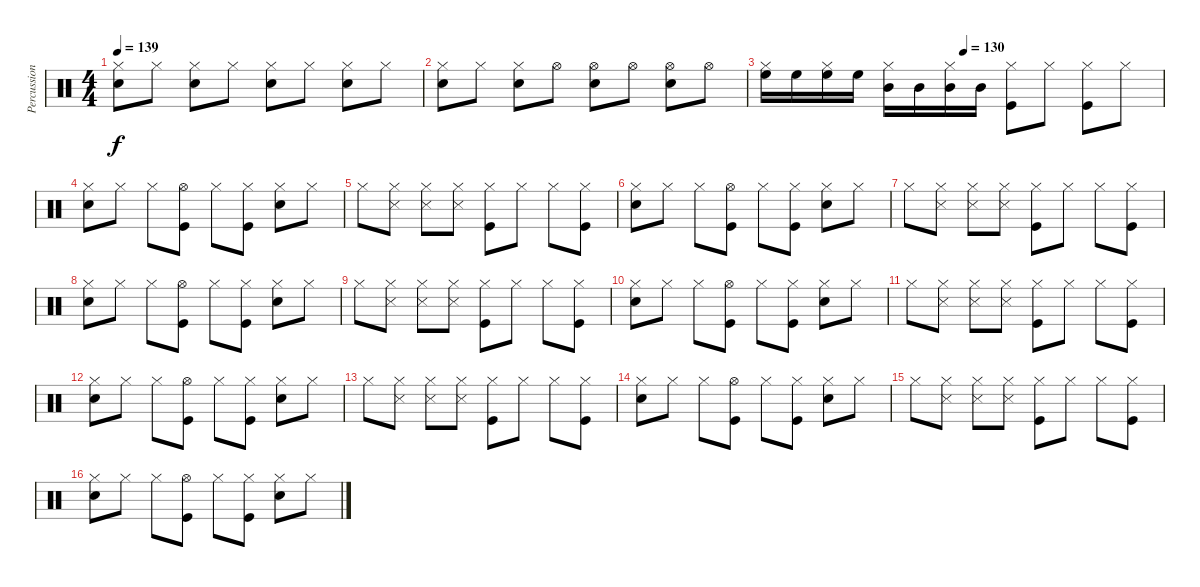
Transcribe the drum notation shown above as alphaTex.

\track ("Percussion" "Percussion") {instrument percussion}
\staff {score}
\articulation defaults
\ts (4 4)
\tempo 139
\clef neutral
\ks c
("Electric Snare (hit)" "Hi-Hat (closed)").8{dy f} "Hi-Hat (closed)".8 ("Electric Snare (hit)" "Hi-Hat (closed)").8 "Hi-Hat (closed)".8 ("Electric Snare (hit)" "Hi-Hat (closed)").8 "Hi-Hat (closed)".8 ("Electric Snare (hit)" "Hi-Hat (closed)").8 "Hi-Hat (closed)".8 |
("Electric Snare (hit)" "Hi-Hat (closed)").8 "Hi-Hat (closed)".8 ("Electric Snare (hit)" "Hi-Hat (closed)").8 "Hi-Hat (open)".8 ("Electric Snare (hit)" "Hi-Hat (open)").8 "Hi-Hat (open)".8 ("Electric Snare (hit)" "Hi-Hat (open)").8 "Hi-Hat (open)".8 |
\tempo (130 0.5)
("High Floor Tom (hit)" "Hi-Hat (closed)").16 "High Floor Tom (hit)".16 ("High Floor Tom (hit)" "Hi-Hat (closed)").16 "High Floor Tom (hit)".16 ("Mid Tom (hit)" "Hi-Hat (closed)").16 "Mid Tom (hit)".16 ("Mid Tom (hit)" "Hi-Hat (closed)").16 "Mid Tom (hit)".16 ("Kick (hit)" "Hi-Hat (closed)").8 "Hi-Hat (closed)".8 ("Kick (hit)" "Hi-Hat (closed)").8 "Hi-Hat (closed)".8 |
("Electric Snare (hit)" "Hi-Hat (closed)").8 "Hi-Hat (closed)".8 "Hi-Hat (closed)".8 ("Kick (hit)" "Hi-Hat (open)").8 "Hi-Hat (closed)".8 ("Kick (hit)" "Hi-Hat (closed)").8 ("Electric Snare (hit)" "Hi-Hat (closed)").8 "Hi-Hat (closed)".8 |
"Hi-Hat (closed)".8 ("Snare (side stick) 3" "Hi-Hat (closed)").8 ("Snare (side stick) 3" "Hi-Hat (closed)").8 ("Snare (side stick) 3" "Hi-Hat (closed)").8 ("Kick (hit)" "Hi-Hat (closed)").8 "Hi-Hat (closed)".8 "Hi-Hat (closed)".8 ("Kick (hit)" "Hi-Hat (closed)").8 |
("Electric Snare (hit)" "Hi-Hat (closed)").8 "Hi-Hat (closed)".8 "Hi-Hat (closed)".8 ("Kick (hit)" "Hi-Hat (open)").8 "Hi-Hat (closed)".8 ("Kick (hit)" "Hi-Hat (closed)").8 ("Electric Snare (hit)" "Hi-Hat (closed)").8 "Hi-Hat (closed)".8 |
"Hi-Hat (closed)".8 ("Snare (side stick) 3" "Hi-Hat (closed)").8 ("Snare (side stick) 3" "Hi-Hat (closed)").8 ("Snare (side stick) 3" "Hi-Hat (closed)").8 ("Kick (hit)" "Hi-Hat (closed)").8 "Hi-Hat (closed)".8 "Hi-Hat (closed)".8 ("Kick (hit)" "Hi-Hat (closed)").8 |
("Electric Snare (hit)" "Hi-Hat (closed)").8 "Hi-Hat (closed)".8 "Hi-Hat (closed)".8 ("Kick (hit)" "Hi-Hat (open)").8 "Hi-Hat (closed)".8 ("Kick (hit)" "Hi-Hat (closed)").8 ("Electric Snare (hit)" "Hi-Hat (closed)").8 "Hi-Hat (closed)".8 |
"Hi-Hat (closed)".8 ("Snare (side stick) 3" "Hi-Hat (closed)").8 ("Snare (side stick) 3" "Hi-Hat (closed)").8 ("Snare (side stick) 3" "Hi-Hat (closed)").8 ("Kick (hit)" "Hi-Hat (closed)").8 "Hi-Hat (closed)".8 "Hi-Hat (closed)".8 ("Kick (hit)" "Hi-Hat (closed)").8 |
("Electric Snare (hit)" "Hi-Hat (closed)").8 "Hi-Hat (closed)".8 "Hi-Hat (closed)".8 ("Kick (hit)" "Hi-Hat (open)").8 "Hi-Hat (closed)".8 ("Kick (hit)" "Hi-Hat (closed)").8 ("Electric Snare (hit)" "Hi-Hat (closed)").8 "Hi-Hat (closed)".8 |
"Hi-Hat (closed)".8 ("Snare (side stick) 3" "Hi-Hat (closed)").8 ("Snare (side stick) 3" "Hi-Hat (closed)").8 ("Snare (side stick) 3" "Hi-Hat (closed)").8 ("Kick (hit)" "Hi-Hat (closed)").8 "Hi-Hat (closed)".8 "Hi-Hat (closed)".8 ("Kick (hit)" "Hi-Hat (closed)").8 |
("Electric Snare (hit)" "Hi-Hat (closed)").8 "Hi-Hat (closed)".8 "Hi-Hat (closed)".8 ("Kick (hit)" "Hi-Hat (open)").8 "Hi-Hat (closed)".8 ("Kick (hit)" "Hi-Hat (closed)").8 ("Electric Snare (hit)" "Hi-Hat (closed)").8 "Hi-Hat (closed)".8 |
"Hi-Hat (closed)".8 ("Snare (side stick) 3" "Hi-Hat (closed)").8 ("Snare (side stick) 3" "Hi-Hat (closed)").8 ("Snare (side stick) 3" "Hi-Hat (closed)").8 ("Kick (hit)" "Hi-Hat (closed)").8 "Hi-Hat (closed)".8 "Hi-Hat (closed)".8 ("Kick (hit)" "Hi-Hat (closed)").8 |
("Electric Snare (hit)" "Hi-Hat (closed)").8 "Hi-Hat (closed)".8 "Hi-Hat (closed)".8 ("Kick (hit)" "Hi-Hat (open)").8 "Hi-Hat (closed)".8 ("Kick (hit)" "Hi-Hat (closed)").8 ("Electric Snare (hit)" "Hi-Hat (closed)").8 "Hi-Hat (closed)".8 |
"Hi-Hat (closed)".8 ("Snare (side stick) 3" "Hi-Hat (closed)").8 ("Snare (side stick) 3" "Hi-Hat (closed)").8 ("Snare (side stick) 3" "Hi-Hat (closed)").8 ("Kick (hit)" "Hi-Hat (closed)").8 "Hi-Hat (closed)".8 "Hi-Hat (closed)".8 ("Kick (hit)" "Hi-Hat (closed)").8 |
("Electric Snare (hit)" "Hi-Hat (closed)").8 "Hi-Hat (closed)".8 "Hi-Hat (closed)".8 ("Kick (hit)" "Hi-Hat (open)").8 "Hi-Hat (closed)".8 ("Kick (hit)" "Hi-Hat (closed)").8 ("Electric Snare (hit)" "Hi-Hat (closed)").8 "Hi-Hat (closed)".8
